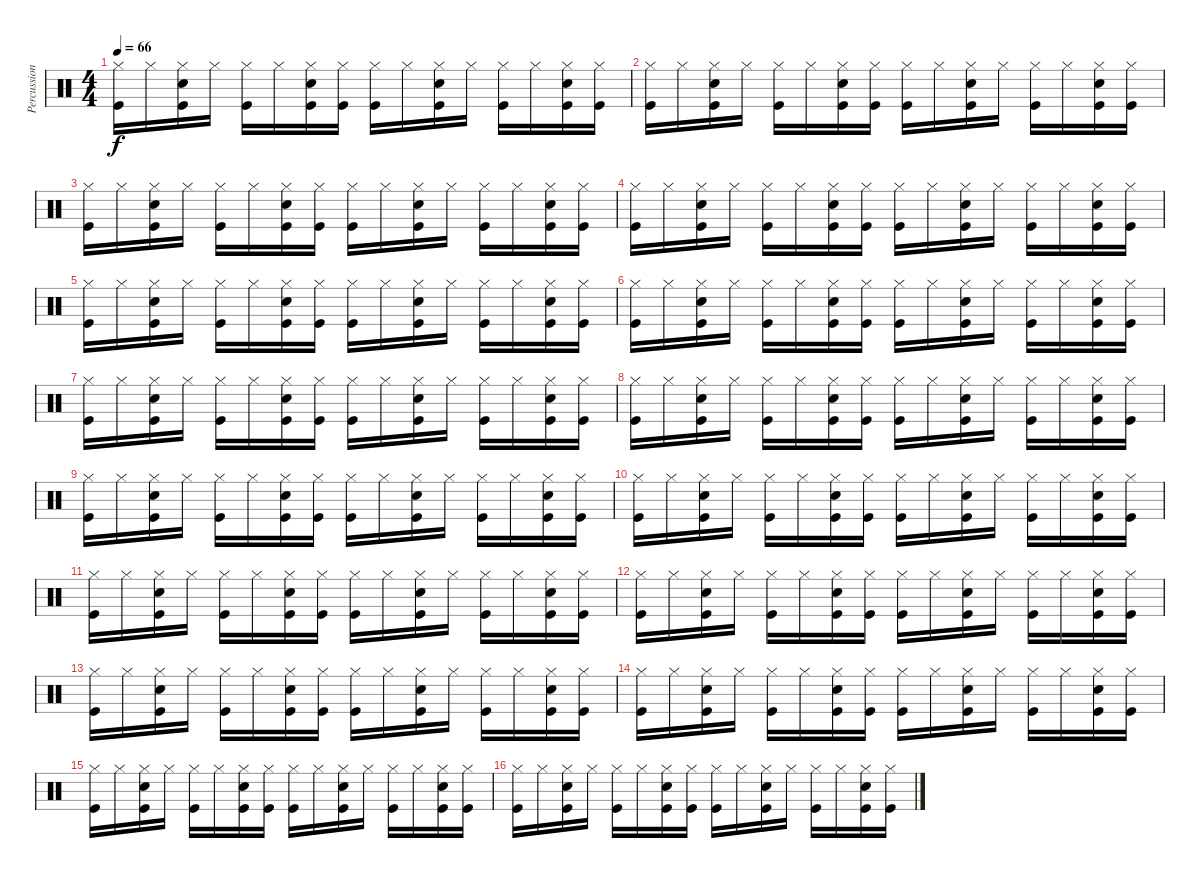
\track ("Percussion" "Percussion") {instrument percussion}
\staff {score}
\articulation defaults
\ts (4 4)
\tempo 66
\clef neutral
\ks c
("Hi-Hat (closed)" "Kick (hit)").16{dy f} "Hi-Hat (closed)".16 ("Hi-Hat (closed)" "Kick (hit)" "Electric Snare (hit)").16 "Hi-Hat (closed)".16 ("Hi-Hat (closed)" "Kick (hit)").16 "Hi-Hat (closed)".16 ("Hi-Hat (closed)" "Kick (hit)" "Electric Snare (hit)").16 ("Hi-Hat (closed)" "Kick (hit)").16 ("Hi-Hat (closed)" "Kick (hit)").16 "Hi-Hat (closed)".16 ("Hi-Hat (closed)" "Kick (hit)" "Electric Snare (hit)").16 "Hi-Hat (closed)".16 ("Hi-Hat (closed)" "Kick (hit)").16 "Hi-Hat (closed)".16 ("Hi-Hat (closed)" "Kick (hit)" "Electric Snare (hit)").16 ("Hi-Hat (closed)" "Kick (hit)").16 |
("Hi-Hat (closed)" "Kick (hit)").16 "Hi-Hat (closed)".16 ("Hi-Hat (closed)" "Kick (hit)" "Electric Snare (hit)").16 "Hi-Hat (closed)".16 ("Hi-Hat (closed)" "Kick (hit)").16 "Hi-Hat (closed)".16 ("Hi-Hat (closed)" "Kick (hit)" "Electric Snare (hit)").16 ("Hi-Hat (closed)" "Kick (hit)").16 ("Hi-Hat (closed)" "Kick (hit)").16 "Hi-Hat (closed)".16 ("Hi-Hat (closed)" "Kick (hit)" "Electric Snare (hit)").16 "Hi-Hat (closed)".16 ("Hi-Hat (closed)" "Kick (hit)").16 "Hi-Hat (closed)".16 ("Hi-Hat (closed)" "Kick (hit)" "Electric Snare (hit)").16 ("Hi-Hat (closed)" "Kick (hit)").16 |
("Hi-Hat (closed)" "Kick (hit)").16 "Hi-Hat (closed)".16 ("Hi-Hat (closed)" "Kick (hit)" "Electric Snare (hit)").16 "Hi-Hat (closed)".16 ("Hi-Hat (closed)" "Kick (hit)").16 "Hi-Hat (closed)".16 ("Hi-Hat (closed)" "Kick (hit)" "Electric Snare (hit)").16 ("Hi-Hat (closed)" "Kick (hit)").16 ("Hi-Hat (closed)" "Kick (hit)").16 "Hi-Hat (closed)".16 ("Hi-Hat (closed)" "Kick (hit)" "Electric Snare (hit)").16 "Hi-Hat (closed)".16 ("Hi-Hat (closed)" "Kick (hit)").16 "Hi-Hat (closed)".16 ("Hi-Hat (closed)" "Kick (hit)" "Electric Snare (hit)").16 ("Hi-Hat (closed)" "Kick (hit)").16 |
("Hi-Hat (closed)" "Kick (hit)").16 "Hi-Hat (closed)".16 ("Hi-Hat (closed)" "Kick (hit)" "Electric Snare (hit)").16 "Hi-Hat (closed)".16 ("Hi-Hat (closed)" "Kick (hit)").16 "Hi-Hat (closed)".16 ("Hi-Hat (closed)" "Kick (hit)" "Electric Snare (hit)").16 ("Hi-Hat (closed)" "Kick (hit)").16 ("Hi-Hat (closed)" "Kick (hit)").16 "Hi-Hat (closed)".16 ("Hi-Hat (closed)" "Kick (hit)" "Electric Snare (hit)").16 "Hi-Hat (closed)".16 ("Hi-Hat (closed)" "Kick (hit)").16 "Hi-Hat (closed)".16 ("Hi-Hat (closed)" "Kick (hit)" "Electric Snare (hit)").16 ("Hi-Hat (closed)" "Kick (hit)").16 |
("Hi-Hat (closed)" "Kick (hit)").16 "Hi-Hat (closed)".16 ("Hi-Hat (closed)" "Kick (hit)" "Electric Snare (hit)").16 "Hi-Hat (closed)".16 ("Hi-Hat (closed)" "Kick (hit)").16 "Hi-Hat (closed)".16 ("Hi-Hat (closed)" "Kick (hit)" "Electric Snare (hit)").16 ("Hi-Hat (closed)" "Kick (hit)").16 ("Hi-Hat (closed)" "Kick (hit)").16 "Hi-Hat (closed)".16 ("Hi-Hat (closed)" "Kick (hit)" "Electric Snare (hit)").16 "Hi-Hat (closed)".16 ("Hi-Hat (closed)" "Kick (hit)").16 "Hi-Hat (closed)".16 ("Hi-Hat (closed)" "Kick (hit)" "Electric Snare (hit)").16 ("Hi-Hat (closed)" "Kick (hit)").16 |
("Hi-Hat (closed)" "Kick (hit)").16 "Hi-Hat (closed)".16 ("Hi-Hat (closed)" "Kick (hit)" "Electric Snare (hit)").16 "Hi-Hat (closed)".16 ("Hi-Hat (closed)" "Kick (hit)").16 "Hi-Hat (closed)".16 ("Hi-Hat (closed)" "Kick (hit)" "Electric Snare (hit)").16 ("Hi-Hat (closed)" "Kick (hit)").16 ("Hi-Hat (closed)" "Kick (hit)").16 "Hi-Hat (closed)".16 ("Hi-Hat (closed)" "Kick (hit)" "Electric Snare (hit)").16 "Hi-Hat (closed)".16 ("Hi-Hat (closed)" "Kick (hit)").16 "Hi-Hat (closed)".16 ("Hi-Hat (closed)" "Kick (hit)" "Electric Snare (hit)").16 ("Hi-Hat (closed)" "Kick (hit)").16 |
("Hi-Hat (closed)" "Kick (hit)").16 "Hi-Hat (closed)".16 ("Hi-Hat (closed)" "Kick (hit)" "Electric Snare (hit)").16 "Hi-Hat (closed)".16 ("Hi-Hat (closed)" "Kick (hit)").16 "Hi-Hat (closed)".16 ("Hi-Hat (closed)" "Kick (hit)" "Electric Snare (hit)").16 ("Hi-Hat (closed)" "Kick (hit)").16 ("Hi-Hat (closed)" "Kick (hit)").16 "Hi-Hat (closed)".16 ("Hi-Hat (closed)" "Kick (hit)" "Electric Snare (hit)").16 "Hi-Hat (closed)".16 ("Hi-Hat (closed)" "Kick (hit)").16 "Hi-Hat (closed)".16 ("Hi-Hat (closed)" "Kick (hit)" "Electric Snare (hit)").16 ("Hi-Hat (closed)" "Kick (hit)").16 |
("Hi-Hat (closed)" "Kick (hit)").16 "Hi-Hat (closed)".16 ("Hi-Hat (closed)" "Kick (hit)" "Electric Snare (hit)").16 "Hi-Hat (closed)".16 ("Hi-Hat (closed)" "Kick (hit)").16 "Hi-Hat (closed)".16 ("Hi-Hat (closed)" "Kick (hit)" "Electric Snare (hit)").16 ("Hi-Hat (closed)" "Kick (hit)").16 ("Hi-Hat (closed)" "Kick (hit)").16 "Hi-Hat (closed)".16 ("Hi-Hat (closed)" "Kick (hit)" "Electric Snare (hit)").16 "Hi-Hat (closed)".16 ("Hi-Hat (closed)" "Kick (hit)").16 "Hi-Hat (closed)".16 ("Hi-Hat (closed)" "Kick (hit)" "Electric Snare (hit)").16 ("Hi-Hat (closed)" "Kick (hit)").16 |
("Hi-Hat (closed)" "Kick (hit)").16 "Hi-Hat (closed)".16 ("Hi-Hat (closed)" "Kick (hit)" "Electric Snare (hit)").16 "Hi-Hat (closed)".16 ("Hi-Hat (closed)" "Kick (hit)").16 "Hi-Hat (closed)".16 ("Hi-Hat (closed)" "Kick (hit)" "Electric Snare (hit)").16 ("Hi-Hat (closed)" "Kick (hit)").16 ("Hi-Hat (closed)" "Kick (hit)").16 "Hi-Hat (closed)".16 ("Hi-Hat (closed)" "Kick (hit)" "Electric Snare (hit)").16 "Hi-Hat (closed)".16 ("Hi-Hat (closed)" "Kick (hit)").16 "Hi-Hat (closed)".16 ("Hi-Hat (closed)" "Kick (hit)" "Electric Snare (hit)").16 ("Hi-Hat (closed)" "Kick (hit)").16 |
("Hi-Hat (closed)" "Kick (hit)").16 "Hi-Hat (closed)".16 ("Hi-Hat (closed)" "Kick (hit)" "Electric Snare (hit)").16 "Hi-Hat (closed)".16 ("Hi-Hat (closed)" "Kick (hit)").16 "Hi-Hat (closed)".16 ("Hi-Hat (closed)" "Kick (hit)" "Electric Snare (hit)").16 ("Hi-Hat (closed)" "Kick (hit)").16 ("Hi-Hat (closed)" "Kick (hit)").16 "Hi-Hat (closed)".16 ("Hi-Hat (closed)" "Kick (hit)" "Electric Snare (hit)").16 "Hi-Hat (closed)".16 ("Hi-Hat (closed)" "Kick (hit)").16 "Hi-Hat (closed)".16 ("Hi-Hat (closed)" "Kick (hit)" "Electric Snare (hit)").16 ("Hi-Hat (closed)" "Kick (hit)").16 |
("Hi-Hat (closed)" "Kick (hit)").16 "Hi-Hat (closed)".16 ("Hi-Hat (closed)" "Kick (hit)" "Electric Snare (hit)").16 "Hi-Hat (closed)".16 ("Hi-Hat (closed)" "Kick (hit)").16 "Hi-Hat (closed)".16 ("Hi-Hat (closed)" "Kick (hit)" "Electric Snare (hit)").16 ("Hi-Hat (closed)" "Kick (hit)").16 ("Hi-Hat (closed)" "Kick (hit)").16 "Hi-Hat (closed)".16 ("Hi-Hat (closed)" "Kick (hit)" "Electric Snare (hit)").16 "Hi-Hat (closed)".16 ("Hi-Hat (closed)" "Kick (hit)").16 "Hi-Hat (closed)".16 ("Hi-Hat (closed)" "Kick (hit)" "Electric Snare (hit)").16 ("Hi-Hat (closed)" "Kick (hit)").16 |
("Hi-Hat (closed)" "Kick (hit)").16 "Hi-Hat (closed)".16 ("Hi-Hat (closed)" "Kick (hit)" "Electric Snare (hit)").16 "Hi-Hat (closed)".16 ("Hi-Hat (closed)" "Kick (hit)").16 "Hi-Hat (closed)".16 ("Hi-Hat (closed)" "Kick (hit)" "Electric Snare (hit)").16 ("Hi-Hat (closed)" "Kick (hit)").16 ("Hi-Hat (closed)" "Kick (hit)").16 "Hi-Hat (closed)".16 ("Hi-Hat (closed)" "Kick (hit)" "Electric Snare (hit)").16 "Hi-Hat (closed)".16 ("Hi-Hat (closed)" "Kick (hit)").16 "Hi-Hat (closed)".16 ("Hi-Hat (closed)" "Kick (hit)" "Electric Snare (hit)").16 ("Hi-Hat (closed)" "Kick (hit)").16 |
("Hi-Hat (closed)" "Kick (hit)").16 "Hi-Hat (closed)".16 ("Hi-Hat (closed)" "Kick (hit)" "Electric Snare (hit)").16 "Hi-Hat (closed)".16 ("Hi-Hat (closed)" "Kick (hit)").16 "Hi-Hat (closed)".16 ("Hi-Hat (closed)" "Kick (hit)" "Electric Snare (hit)").16 ("Hi-Hat (closed)" "Kick (hit)").16 ("Hi-Hat (closed)" "Kick (hit)").16 "Hi-Hat (closed)".16 ("Hi-Hat (closed)" "Kick (hit)" "Electric Snare (hit)").16 "Hi-Hat (closed)".16 ("Hi-Hat (closed)" "Kick (hit)").16 "Hi-Hat (closed)".16 ("Hi-Hat (closed)" "Kick (hit)" "Electric Snare (hit)").16 ("Hi-Hat (closed)" "Kick (hit)").16 |
("Hi-Hat (closed)" "Kick (hit)").16 "Hi-Hat (closed)".16 ("Hi-Hat (closed)" "Kick (hit)" "Electric Snare (hit)").16 "Hi-Hat (closed)".16 ("Hi-Hat (closed)" "Kick (hit)").16 "Hi-Hat (closed)".16 ("Hi-Hat (closed)" "Kick (hit)" "Electric Snare (hit)").16 ("Hi-Hat (closed)" "Kick (hit)").16 ("Hi-Hat (closed)" "Kick (hit)").16 "Hi-Hat (closed)".16 ("Hi-Hat (closed)" "Kick (hit)" "Electric Snare (hit)").16 "Hi-Hat (closed)".16 ("Hi-Hat (closed)" "Kick (hit)").16 "Hi-Hat (closed)".16 ("Hi-Hat (closed)" "Kick (hit)" "Electric Snare (hit)").16 ("Hi-Hat (closed)" "Kick (hit)").16 |
("Hi-Hat (closed)" "Kick (hit)").16 "Hi-Hat (closed)".16 ("Hi-Hat (closed)" "Kick (hit)" "Electric Snare (hit)").16 "Hi-Hat (closed)".16 ("Hi-Hat (closed)" "Kick (hit)").16 "Hi-Hat (closed)".16 ("Hi-Hat (closed)" "Kick (hit)" "Electric Snare (hit)").16 ("Hi-Hat (closed)" "Kick (hit)").16 ("Hi-Hat (closed)" "Kick (hit)").16 "Hi-Hat (closed)".16 ("Hi-Hat (closed)" "Kick (hit)" "Electric Snare (hit)").16 "Hi-Hat (closed)".16 ("Hi-Hat (closed)" "Kick (hit)").16 "Hi-Hat (closed)".16 ("Hi-Hat (closed)" "Kick (hit)" "Electric Snare (hit)").16 ("Hi-Hat (closed)" "Kick (hit)").16 |
("Hi-Hat (closed)" "Kick (hit)").16 "Hi-Hat (closed)".16 ("Hi-Hat (closed)" "Kick (hit)" "Electric Snare (hit)").16 "Hi-Hat (closed)".16 ("Hi-Hat (closed)" "Kick (hit)").16 "Hi-Hat (closed)".16 ("Hi-Hat (closed)" "Kick (hit)" "Electric Snare (hit)").16 ("Hi-Hat (closed)" "Kick (hit)").16 ("Hi-Hat (closed)" "Kick (hit)").16 "Hi-Hat (closed)".16 ("Hi-Hat (closed)" "Kick (hit)" "Electric Snare (hit)").16 "Hi-Hat (closed)".16 ("Hi-Hat (closed)" "Kick (hit)").16 "Hi-Hat (closed)".16 ("Hi-Hat (closed)" "Kick (hit)" "Electric Snare (hit)").16 ("Hi-Hat (closed)" "Kick (hit)").16
